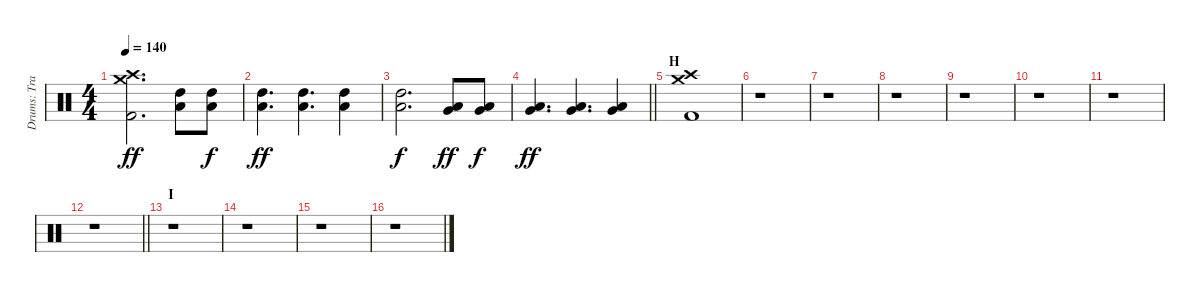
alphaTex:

\track ("Drums: Travis Clarke" "Drums: Tra") {instrument percussion}
\staff {score}
\articulation defaults
\ts (4 4)
\tempo 140
\clef neutral
\ks c
("Kick (hit) 2" "Crash high (hit)" "Crash medium (hit)").2{d dy ff} ("Low Tom (hit)" "High Tom (hit)").8 ("Low Tom (hit)" "High Tom (hit)").8{dy f} |
("Low Tom (hit)" "High Tom (hit)").4{d dy ff} ("Low Tom (hit)" "High Tom (hit)").4{d} ("Low Tom (hit)" "High Tom (hit)").4 |
("Low Tom (hit)" "High Tom (hit)").2{d dy f} ("Very Low Tom (hit)" "Low Tom (hit)").8{dy ff} ("Very Low Tom (hit)" "Low Tom (hit)").8{dy f} |
\barLineRight lightlight
("Very Low Tom (hit)" "Low Tom (hit)").4{d dy ff} ("Very Low Tom (hit)" "Low Tom (hit)").4{d} ("Very Low Tom (hit)" "Low Tom (hit)").4 |
\section ("" "H")
("Kick (hit) 2" "Crash high (hit)" "Crash medium (hit)").1 |
r.1 |
r.1 |
r.1 |
r.1 |
r.1 |
r.1 |
\barLineRight lightlight
r.1 |
\section ("" "I")
r.1 |
r.1 |
r.1 |
r.1
